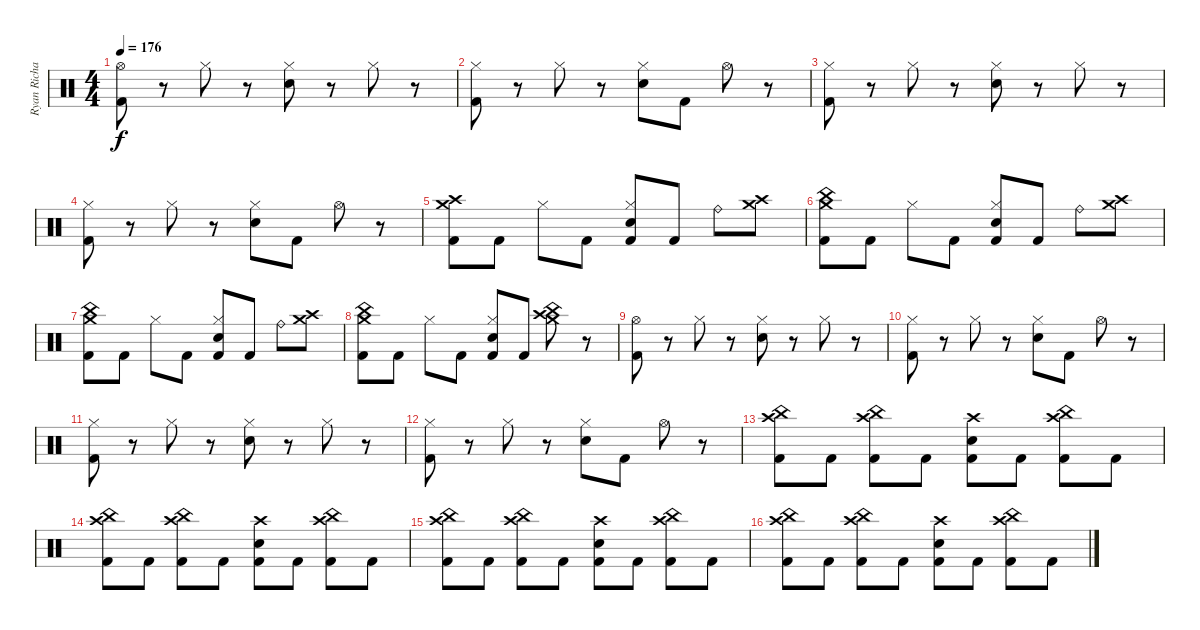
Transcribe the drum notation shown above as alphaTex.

\track ("Ryan Richards (drums)" "Ryan Richa") {instrument percussion}
\staff {score}
\articulation defaults
\ts (4 4)
\tempo 176
\clef neutral
\ks c
("Hi-Hat (open)" "Kick (hit) 2").8{dy f} r.8 "Hi-Hat (closed)".8 r.8 ("Snare (hit) 2" "Hi-Hat (closed)").8 r.8 "Hi-Hat (closed)".8 r.8 |
("Hi-Hat (closed)" "Kick (hit) 2").8 r.8 "Hi-Hat (closed)".8 r.8 ("Snare (hit) 2" "Hi-Hat (closed)").8 "Kick (hit) 2".8 "Hi-Hat (open)".8 r.8 |
("Hi-Hat (closed)" "Kick (hit) 2").8 r.8 "Hi-Hat (closed)".8 r.8 ("Snare (hit) 2" "Hi-Hat (closed)").8 r.8 "Hi-Hat (closed)".8 r.8 |
("Hi-Hat (closed)" "Kick (hit) 2").8 r.8 "Hi-Hat (closed)".8 r.8 ("Snare (hit) 2" "Hi-Hat (closed)").8 "Kick (hit) 2".8 "Hi-Hat (open)".8 r.8 |
("Crash medium (hit)" "Crash high (hit)" "Kick (hit) 2").8 "Kick (hit) 2".8 "Hi-Hat (closed)".8 "Kick (hit) 2".8 ("Snare (hit) 2" "Hi-Hat (closed)" "Kick (hit) 2").8 "Kick (hit) 2".8 "Ride (bell)".8 ("Crash medium (hit)" "Crash high (hit)").8 |
("Crash medium (hit)" "China (hit)" "Kick (hit) 2").8 "Kick (hit) 2".8 "Hi-Hat (closed)".8 "Kick (hit) 2".8 ("Snare (hit) 2" "Hi-Hat (closed)" "Kick (hit) 2").8 "Kick (hit) 2".8 "Ride (bell)".8 ("Crash medium (hit)" "Crash high (hit)").8 |
("Crash medium (hit)" "China (hit)" "Kick (hit) 2").8 "Kick (hit) 2".8 "Hi-Hat (closed)".8 "Kick (hit) 2".8 ("Snare (hit) 2" "Hi-Hat (closed)" "Kick (hit) 2").8 "Kick (hit) 2".8 "Ride (bell)".8 ("Crash medium (hit)" "Crash high (hit)").8 |
("China (hit)" "Crash medium (hit)" "Kick (hit) 2").8 "Kick (hit) 2".8 "Hi-Hat (closed)".8 "Kick (hit) 2".8 ("Snare (hit) 2" "Hi-Hat (closed)" "Kick (hit) 2").8 "Kick (hit) 2".8 ("China (hit)" "Crash medium (hit)" "Crash high (hit)").8 r.8 |
("Hi-Hat (open)" "Kick (hit) 2").8 r.8 "Hi-Hat (closed)".8 r.8 ("Snare (hit) 2" "Hi-Hat (closed)").8 r.8 "Hi-Hat (closed)".8 r.8 |
("Hi-Hat (closed)" "Kick (hit) 2").8 r.8 "Hi-Hat (closed)".8 r.8 ("Snare (hit) 2" "Hi-Hat (closed)").8 "Kick (hit) 2".8 "Hi-Hat (open)".8 r.8 |
("Hi-Hat (closed)" "Kick (hit) 2").8 r.8 "Hi-Hat (closed)".8 r.8 ("Snare (hit) 2" "Hi-Hat (closed)").8 r.8 "Hi-Hat (closed)".8 r.8 |
("Hi-Hat (closed)" "Kick (hit) 2").8 r.8 "Hi-Hat (closed)".8 r.8 ("Snare (hit) 2" "Hi-Hat (closed)").8 "Kick (hit) 2".8 "Hi-Hat (open)".8 r.8 |
("Crash high (hit)" "China (hit)" "Kick (hit) 2").8 "Kick (hit) 2".8 ("Crash high (hit)" "China (hit)" "Kick (hit) 2").8 "Kick (hit) 2".8 ("Crash high (hit)" "Snare (hit) 2" "Kick (hit) 2").8 "Kick (hit) 2".8 ("Crash high (hit)" "China (hit)" "Kick (hit) 2").8 "Kick (hit) 2".8 |
("Crash high (hit)" "China (hit)" "Kick (hit) 2").8 "Kick (hit) 2".8 ("Crash high (hit)" "China (hit)" "Kick (hit) 2").8 "Kick (hit) 2".8 ("Crash high (hit)" "Snare (hit) 2" "Kick (hit) 2").8 "Kick (hit) 2".8 ("Crash high (hit)" "China (hit)" "Kick (hit) 2").8 "Kick (hit) 2".8 |
("Crash high (hit)" "China (hit)" "Kick (hit) 2").8 "Kick (hit) 2".8 ("Crash high (hit)" "China (hit)" "Kick (hit) 2").8 "Kick (hit) 2".8 ("Crash high (hit)" "Snare (hit) 2" "Kick (hit) 2").8 "Kick (hit) 2".8 ("Crash high (hit)" "China (hit)" "Kick (hit) 2").8 "Kick (hit) 2".8 |
("Crash high (hit)" "China (hit)" "Kick (hit) 2").8 "Kick (hit) 2".8 ("Crash high (hit)" "China (hit)" "Kick (hit) 2").8 "Kick (hit) 2".8 ("Crash high (hit)" "Snare (hit) 2" "Kick (hit) 2").8 "Kick (hit) 2".8 ("Crash high (hit)" "China (hit)" "Kick (hit) 2").8 "Kick (hit) 2".8
